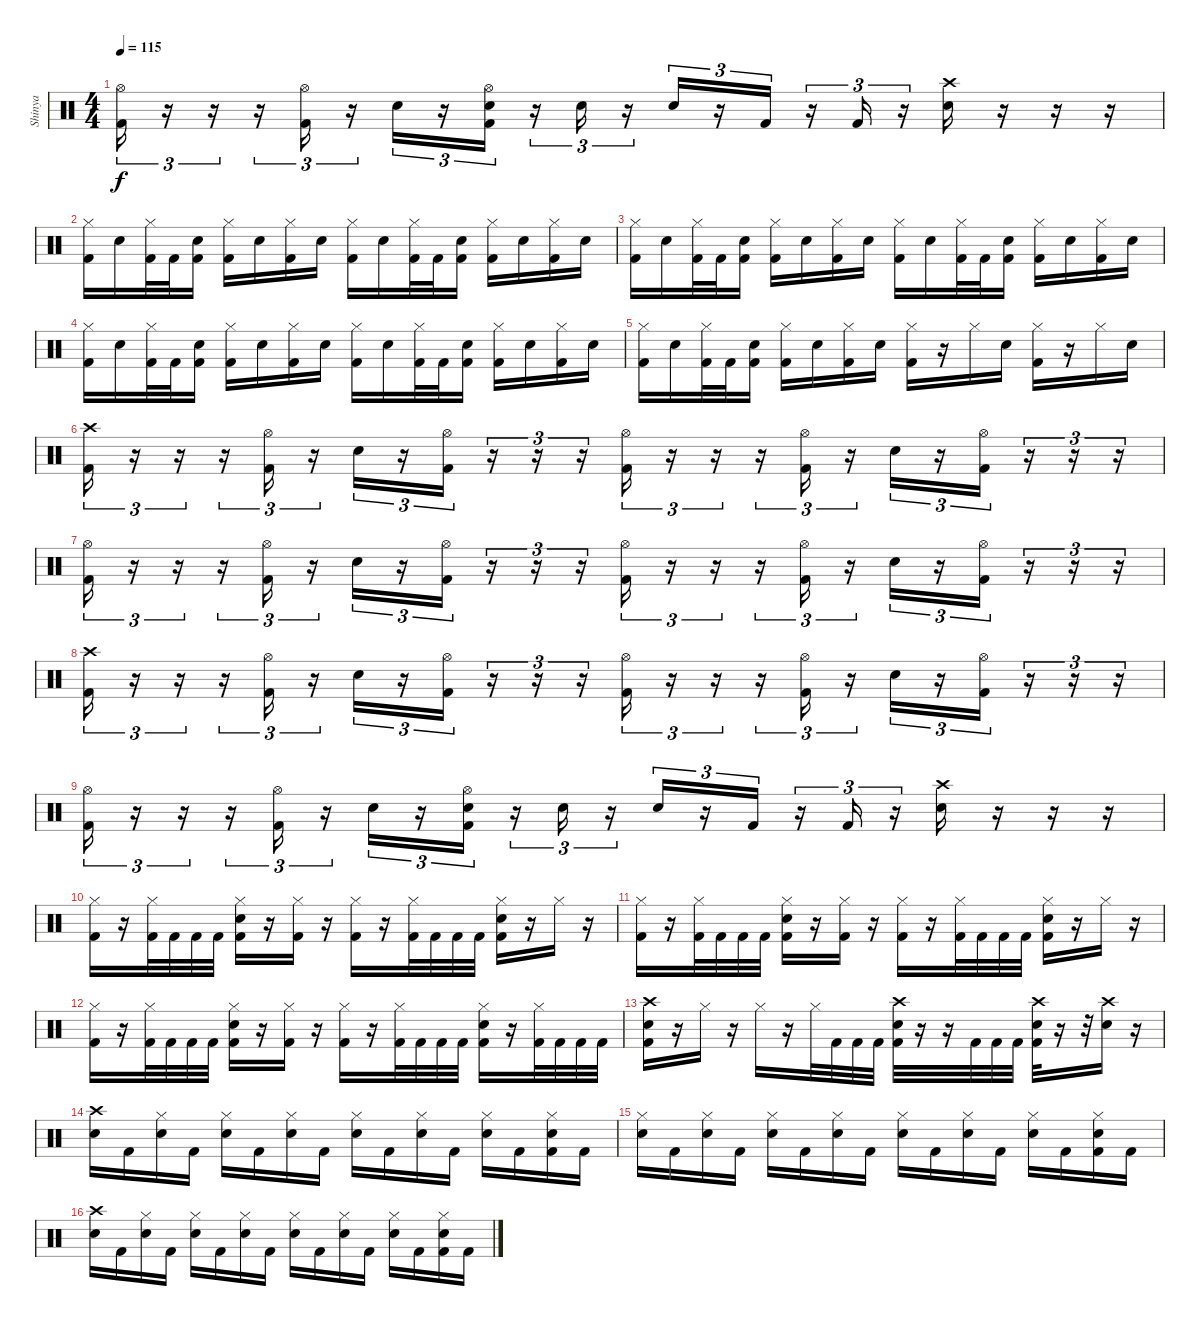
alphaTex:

\track ("Shinya" "Shinya") {instrument percussion}
\staff {score}
\articulation defaults
\ts (4 4)
\tempo 115
\clef neutral
\ks c
("Hi-Hat (open)" "Kick (hit) 2").16{tu (3 2) dy f} r.16{tu (3 2)} r.16{tu (3 2)} r.16{tu (3 2)} ("Hi-Hat (open)" "Kick (hit) 2").16{tu (3 2)} r.16{tu (3 2)} "Electric Snare (hit)".16{tu (3 2)} r.16{tu (3 2)} ("Hi-Hat (open)" "Electric Snare (hit)" "Kick (hit) 2").16{tu (3 2)} r.16{tu (3 2)} "Electric Snare (hit)".16{tu (3 2)} r.16{tu (3 2)} "Electric Snare (hit)".16{tu (3 2)} r.16{tu (3 2)} "Kick (hit) 2".16{tu (3 2)} r.16{tu (3 2)} "Kick (hit) 2".16{tu (3 2)} r.16{tu (3 2)} ("Crash high (hit)" "Electric Snare (hit)").16 r.16 r.16 r.16 |
("Hi-Hat (closed)" "Kick (hit) 2").16 "Electric Snare (hit)".16 ("Hi-Hat (closed)" "Kick (hit) 2").32 "Kick (hit) 2".32 ("Electric Snare (hit)" "Kick (hit) 2").16 ("Hi-Hat (closed)" "Kick (hit) 2").16 "Electric Snare (hit)".16 ("Hi-Hat (closed)" "Kick (hit) 2").16 "Electric Snare (hit)".16 ("Hi-Hat (closed)" "Kick (hit) 2").16 "Electric Snare (hit)".16 ("Hi-Hat (closed)" "Kick (hit) 2").32 "Kick (hit) 2".32 ("Electric Snare (hit)" "Kick (hit) 2").16 ("Hi-Hat (closed)" "Kick (hit) 2").16 "Electric Snare (hit)".16 ("Hi-Hat (closed)" "Kick (hit) 2").16 "Electric Snare (hit)".16 |
("Hi-Hat (closed)" "Kick (hit) 2").16 "Electric Snare (hit)".16 ("Hi-Hat (closed)" "Kick (hit) 2").32 "Kick (hit) 2".32 ("Electric Snare (hit)" "Kick (hit) 2").16 ("Hi-Hat (closed)" "Kick (hit) 2").16 "Electric Snare (hit)".16 ("Hi-Hat (closed)" "Kick (hit) 2").16 "Electric Snare (hit)".16 ("Hi-Hat (closed)" "Kick (hit) 2").16 "Electric Snare (hit)".16 ("Hi-Hat (closed)" "Kick (hit) 2").32 "Kick (hit) 2".32 ("Electric Snare (hit)" "Kick (hit) 2").16 ("Hi-Hat (closed)" "Kick (hit) 2").16 "Electric Snare (hit)".16 ("Hi-Hat (closed)" "Kick (hit) 2").16 "Electric Snare (hit)".16 |
("Hi-Hat (closed)" "Kick (hit) 2").16 "Electric Snare (hit)".16 ("Hi-Hat (closed)" "Kick (hit) 2").32 "Kick (hit) 2".32 ("Electric Snare (hit)" "Kick (hit) 2").16 ("Hi-Hat (closed)" "Kick (hit) 2").16 "Electric Snare (hit)".16 ("Hi-Hat (closed)" "Kick (hit) 2").16 "Electric Snare (hit)".16 ("Hi-Hat (closed)" "Kick (hit) 2").16 "Electric Snare (hit)".16 ("Hi-Hat (closed)" "Kick (hit) 2").32 "Kick (hit) 2".32 ("Electric Snare (hit)" "Kick (hit) 2").16 ("Hi-Hat (closed)" "Kick (hit) 2").16 "Electric Snare (hit)".16 ("Hi-Hat (closed)" "Kick (hit) 2").16 "Electric Snare (hit)".16 |
("Hi-Hat (closed)" "Kick (hit) 2").16 "Electric Snare (hit)".16 ("Hi-Hat (closed)" "Kick (hit) 2").32 "Kick (hit) 2".32 ("Electric Snare (hit)" "Kick (hit) 2").16 ("Hi-Hat (closed)" "Kick (hit) 2").16 "Electric Snare (hit)".16 ("Hi-Hat (closed)" "Kick (hit) 2").16 "Electric Snare (hit)".16 ("Hi-Hat (closed)" "Kick (hit) 2").16 r.16 "Hi-Hat (closed)".16 "Electric Snare (hit)".16 ("Hi-Hat (closed)" "Kick (hit) 2").16 r.16 "Hi-Hat (closed)".16 "Electric Snare (hit)".16 |
("Crash high (hit)" "Kick (hit) 2").16{tu (3 2)} r.16{tu (3 2)} r.16{tu (3 2)} r.16{tu (3 2)} ("Hi-Hat (open)" "Kick (hit) 2").16{tu (3 2)} r.16{tu (3 2)} "Electric Snare (hit)".16{tu (3 2)} r.16{tu (3 2)} ("Hi-Hat (open)" "Kick (hit) 2").16{tu (3 2)} r.16{tu (3 2)} r.16{tu (3 2)} r.16{tu (3 2)} ("Hi-Hat (open)" "Kick (hit) 2").16{tu (3 2)} r.16{tu (3 2)} r.16{tu (3 2)} r.16{tu (3 2)} ("Hi-Hat (open)" "Kick (hit) 2").16{tu (3 2)} r.16{tu (3 2)} "Electric Snare (hit)".16{tu (3 2)} r.16{tu (3 2)} ("Hi-Hat (open)" "Kick (hit) 2").16{tu (3 2)} r.16{tu (3 2)} r.16{tu (3 2)} r.16{tu (3 2)} |
("Hi-Hat (open)" "Kick (hit) 2").16{tu (3 2)} r.16{tu (3 2)} r.16{tu (3 2)} r.16{tu (3 2)} ("Hi-Hat (open)" "Kick (hit) 2").16{tu (3 2)} r.16{tu (3 2)} "Electric Snare (hit)".16{tu (3 2)} r.16{tu (3 2)} ("Hi-Hat (open)" "Kick (hit) 2").16{tu (3 2)} r.16{tu (3 2)} r.16{tu (3 2)} r.16{tu (3 2)} ("Hi-Hat (open)" "Kick (hit) 2").16{tu (3 2)} r.16{tu (3 2)} r.16{tu (3 2)} r.16{tu (3 2)} ("Hi-Hat (open)" "Kick (hit) 2").16{tu (3 2)} r.16{tu (3 2)} "Electric Snare (hit)".16{tu (3 2)} r.16{tu (3 2)} ("Hi-Hat (open)" "Kick (hit) 2").16{tu (3 2)} r.16{tu (3 2)} r.16{tu (3 2)} r.16{tu (3 2)} |
("Crash high (hit)" "Kick (hit) 2").16{tu (3 2)} r.16{tu (3 2)} r.16{tu (3 2)} r.16{tu (3 2)} ("Hi-Hat (open)" "Kick (hit) 2").16{tu (3 2)} r.16{tu (3 2)} "Electric Snare (hit)".16{tu (3 2)} r.16{tu (3 2)} ("Hi-Hat (open)" "Kick (hit) 2").16{tu (3 2)} r.16{tu (3 2)} r.16{tu (3 2)} r.16{tu (3 2)} ("Hi-Hat (open)" "Kick (hit) 2").16{tu (3 2)} r.16{tu (3 2)} r.16{tu (3 2)} r.16{tu (3 2)} ("Hi-Hat (open)" "Kick (hit) 2").16{tu (3 2)} r.16{tu (3 2)} "Electric Snare (hit)".16{tu (3 2)} r.16{tu (3 2)} ("Hi-Hat (open)" "Kick (hit) 2").16{tu (3 2)} r.16{tu (3 2)} r.16{tu (3 2)} r.16{tu (3 2)} |
("Hi-Hat (open)" "Kick (hit) 2").16{tu (3 2)} r.16{tu (3 2)} r.16{tu (3 2)} r.16{tu (3 2)} ("Hi-Hat (open)" "Kick (hit) 2").16{tu (3 2)} r.16{tu (3 2)} "Electric Snare (hit)".16{tu (3 2)} r.16{tu (3 2)} ("Hi-Hat (open)" "Electric Snare (hit)" "Kick (hit) 2").16{tu (3 2)} r.16{tu (3 2)} "Electric Snare (hit)".16{tu (3 2)} r.16{tu (3 2)} "Electric Snare (hit)".16{tu (3 2)} r.16{tu (3 2)} "Kick (hit) 2".16{tu (3 2)} r.16{tu (3 2)} "Kick (hit) 2".16{tu (3 2)} r.16{tu (3 2)} ("Crash high (hit)" "Electric Snare (hit)").16 r.16 r.16 r.16 |
("Hi-Hat (closed)" "Kick (hit) 2").16 r.16 ("Hi-Hat (closed)" "Kick (hit) 2").32 "Kick (hit) 2".32 "Kick (hit) 2".32 "Kick (hit) 2".32 ("Hi-Hat (closed)" "Electric Snare (hit)" "Kick (hit) 2").16 r.16 ("Hi-Hat (closed)" "Kick (hit) 2").16 r.16 ("Hi-Hat (closed)" "Kick (hit) 2").16 r.16 ("Hi-Hat (closed)" "Kick (hit) 2").32 "Kick (hit) 2".32 "Kick (hit) 2".32 "Kick (hit) 2".32 ("Hi-Hat (closed)" "Electric Snare (hit)" "Kick (hit) 2").16 r.16 "Hi-Hat (closed)".16 r.16 |
("Hi-Hat (closed)" "Kick (hit) 2").16 r.16 ("Hi-Hat (closed)" "Kick (hit) 2").32 "Kick (hit) 2".32 "Kick (hit) 2".32 "Kick (hit) 2".32 ("Hi-Hat (closed)" "Electric Snare (hit)" "Kick (hit) 2").16 r.16 ("Hi-Hat (closed)" "Kick (hit) 2").16 r.16 ("Hi-Hat (closed)" "Kick (hit) 2").16 r.16 ("Hi-Hat (closed)" "Kick (hit) 2").32 "Kick (hit) 2".32 "Kick (hit) 2".32 "Kick (hit) 2".32 ("Hi-Hat (closed)" "Electric Snare (hit)" "Kick (hit) 2").16 r.16 "Hi-Hat (closed)".16 r.16 |
("Hi-Hat (closed)" "Kick (hit) 2").16 r.16 ("Hi-Hat (closed)" "Kick (hit) 2").32 "Kick (hit) 2".32 "Kick (hit) 2".32 "Kick (hit) 2".32 ("Hi-Hat (closed)" "Electric Snare (hit)" "Kick (hit) 2").16 r.16 ("Hi-Hat (closed)" "Kick (hit) 2").16 r.16 ("Hi-Hat (closed)" "Kick (hit) 2").16 r.16 ("Hi-Hat (closed)" "Kick (hit) 2").32 "Kick (hit) 2".32 "Kick (hit) 2".32 "Kick (hit) 2".32 ("Hi-Hat (closed)" "Electric Snare (hit)" "Kick (hit) 2").16 r.16 ("Hi-Hat (closed)" "Kick (hit) 2").32 "Kick (hit) 2".32 "Kick (hit) 2".32 "Kick (hit) 2".32 |
("Crash high (hit)" "Electric Snare (hit)" "Kick (hit) 2").16 r.16 "Hi-Hat (closed)".16 r.16 "Hi-Hat (closed)".16 r.16 "Hi-Hat (closed)".32 "Kick (hit) 2".32 "Kick (hit) 2".32 "Kick (hit) 2".32 ("Crash high (hit)" "Electric Snare (hit)" "Kick (hit) 2").32 r.16 r.16 "Kick (hit) 2".32 "Kick (hit) 2".32 "Kick (hit) 2".32 ("Crash high (hit)" "Electric Snare (hit)" "Kick (hit) 2").32 r.16 r.32 ("Crash high (hit)" "Electric Snare (hit)").16 r.16 |
("Crash high (hit)" "Electric Snare (hit)").16 "Kick (hit) 2".16 ("Hi-Hat (closed)" "Electric Snare (hit)").16 "Kick (hit) 2".16 ("Hi-Hat (closed)" "Electric Snare (hit)").16 "Kick (hit) 2".16 ("Hi-Hat (closed)" "Electric Snare (hit)").16 "Kick (hit) 2".16 ("Hi-Hat (closed)" "Electric Snare (hit)").16 "Kick (hit) 2".16 ("Hi-Hat (closed)" "Electric Snare (hit)").16 "Kick (hit) 2".16 ("Hi-Hat (closed)" "Electric Snare (hit)").16 "Kick (hit) 2".16 ("Hi-Hat (closed)" "Electric Snare (hit)" "Kick (hit) 2").16 "Kick (hit) 2".16 |
("Hi-Hat (closed)" "Electric Snare (hit)").16 "Kick (hit) 2".16 ("Hi-Hat (closed)" "Electric Snare (hit)").16 "Kick (hit) 2".16 ("Hi-Hat (closed)" "Electric Snare (hit)").16 "Kick (hit) 2".16 ("Hi-Hat (closed)" "Electric Snare (hit)").16 "Kick (hit) 2".16 ("Hi-Hat (closed)" "Electric Snare (hit)").16 "Kick (hit) 2".16 ("Hi-Hat (closed)" "Electric Snare (hit)").16 "Kick (hit) 2".16 ("Hi-Hat (closed)" "Electric Snare (hit)").16 "Kick (hit) 2".16 ("Hi-Hat (closed)" "Electric Snare (hit)" "Kick (hit) 2").16 "Kick (hit) 2".16 |
("Crash high (hit)" "Electric Snare (hit)").16 "Kick (hit) 2".16 ("Hi-Hat (closed)" "Electric Snare (hit)").16 "Kick (hit) 2".16 ("Hi-Hat (closed)" "Electric Snare (hit)").16 "Kick (hit) 2".16 ("Hi-Hat (closed)" "Electric Snare (hit)").16 "Kick (hit) 2".16 ("Hi-Hat (closed)" "Electric Snare (hit)").16 "Kick (hit) 2".16 ("Hi-Hat (closed)" "Electric Snare (hit)").16 "Kick (hit) 2".16 ("Hi-Hat (closed)" "Electric Snare (hit)").16 "Kick (hit) 2".16 ("Hi-Hat (closed)" "Electric Snare (hit)" "Kick (hit) 2").16 "Kick (hit) 2".16
